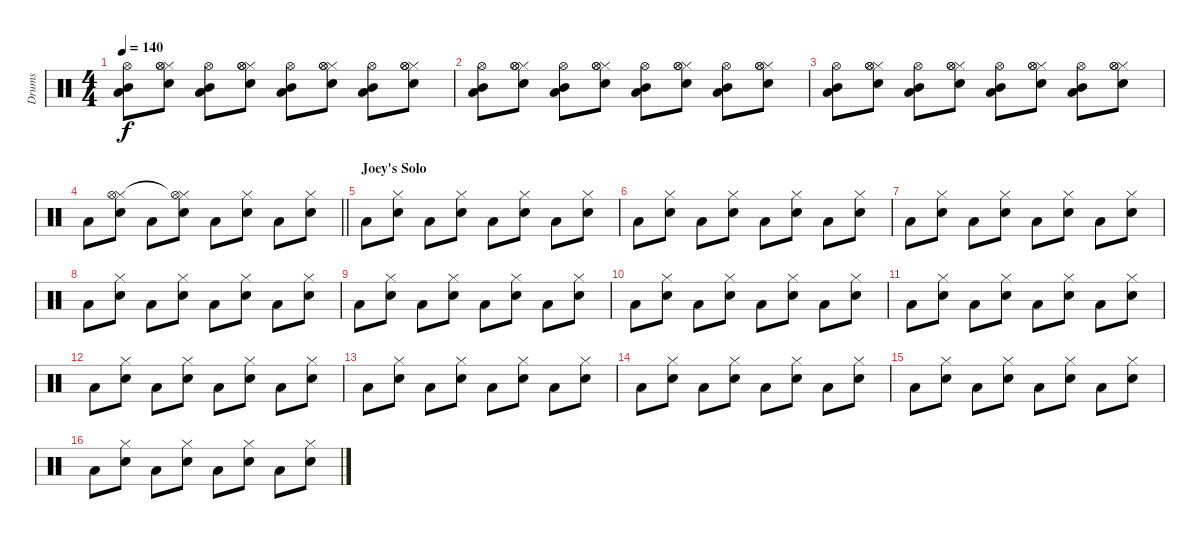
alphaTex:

\track ("Drums" "Drums") {instrument percussion}
\staff {score}
\articulation defaults
\ts (4 4)
\tempo 140
\clef neutral
\ks c
("Mid Tom (hit)" "Hi-Hat (open)" "Low Tom (hit)").8{dy f} ("Hi-Hat (closed)" "Hi-Hat (open)" "Hi-Hat (open)" "Electric Snare (hit)").8 ("Mid Tom (hit)" "Hi-Hat (open)" "Low Tom (hit)").8 ("Hi-Hat (closed)" "Hi-Hat (open)" "Hi-Hat (open)" "Electric Snare (hit)").8 ("Mid Tom (hit)" "Hi-Hat (open)" "Low Tom (hit)").8 ("Hi-Hat (closed)" "Hi-Hat (open)" "Hi-Hat (open)" "Electric Snare (hit)").8 ("Mid Tom (hit)" "Hi-Hat (open)" "Low Tom (hit)").8 ("Hi-Hat (closed)" "Hi-Hat (open)" "Hi-Hat (open)" "Electric Snare (hit)").8 |
("Mid Tom (hit)" "Hi-Hat (open)" "Low Tom (hit)").8 ("Hi-Hat (closed)" "Hi-Hat (open)" "Hi-Hat (open)" "Electric Snare (hit)").8 ("Mid Tom (hit)" "Hi-Hat (open)" "Low Tom (hit)").8 ("Hi-Hat (closed)" "Hi-Hat (open)" "Hi-Hat (open)" "Electric Snare (hit)").8 ("Mid Tom (hit)" "Hi-Hat (open)" "Low Tom (hit)").8 ("Hi-Hat (closed)" "Hi-Hat (open)" "Hi-Hat (open)" "Electric Snare (hit)").8 ("Mid Tom (hit)" "Hi-Hat (open)" "Low Tom (hit)").8 ("Hi-Hat (closed)" "Hi-Hat (open)" "Hi-Hat (open)" "Electric Snare (hit)").8 |
("Mid Tom (hit)" "Hi-Hat (open)" "Low Tom (hit)").8 ("Hi-Hat (closed)" "Hi-Hat (open)" "Hi-Hat (open)" "Electric Snare (hit)").8 ("Mid Tom (hit)" "Hi-Hat (open)" "Low Tom (hit)").8 ("Hi-Hat (closed)" "Hi-Hat (open)" "Hi-Hat (open)" "Electric Snare (hit)").8 ("Mid Tom (hit)" "Hi-Hat (open)" "Low Tom (hit)").8 ("Hi-Hat (closed)" "Hi-Hat (open)" "Hi-Hat (open)" "Electric Snare (hit)").8 ("Mid Tom (hit)" "Hi-Hat (open)" "Low Tom (hit)").8 ("Hi-Hat (closed)" "Hi-Hat (open)" "Hi-Hat (open)" "Electric Snare (hit)").8 |
\barLineRight lightlight "Low Tom (hit)".8
("Hi-Hat (closed)" "Hi-Hat (open)" "Electric Snare (hit)").8 "Low Tom (hit)".8 ("Hi-Hat (closed)" "Hi-Hat (open)"{t} "Electric Snare (hit)").8 "Low Tom (hit)".8 ("Hi-Hat (closed)" "Electric Snare (hit)").8 "Low Tom (hit)".8 ("Hi-Hat (closed)" "Electric Snare (hit)").8 |
\section ("" "Joey's Solo")
"Low Tom (hit)".8 ("Hi-Hat (closed)" "Electric Snare (hit)").8 "Low Tom (hit)".8 ("Hi-Hat (closed)" "Electric Snare (hit)").8 "Low Tom (hit)".8 ("Hi-Hat (closed)" "Electric Snare (hit)").8 "Low Tom (hit)".8 ("Hi-Hat (closed)" "Electric Snare (hit)").8 |
"Low Tom (hit)".8 ("Hi-Hat (closed)" "Electric Snare (hit)").8 "Low Tom (hit)".8 ("Hi-Hat (closed)" "Electric Snare (hit)").8 "Low Tom (hit)".8 ("Hi-Hat (closed)" "Electric Snare (hit)").8 "Low Tom (hit)".8 ("Hi-Hat (closed)" "Electric Snare (hit)").8 |
"Low Tom (hit)".8 ("Hi-Hat (closed)" "Electric Snare (hit)").8 "Low Tom (hit)".8 ("Hi-Hat (closed)" "Electric Snare (hit)").8 "Low Tom (hit)".8 ("Hi-Hat (closed)" "Electric Snare (hit)").8 "Low Tom (hit)".8 ("Hi-Hat (closed)" "Electric Snare (hit)").8 |
"Low Tom (hit)".8 ("Hi-Hat (closed)" "Electric Snare (hit)").8 "Low Tom (hit)".8 ("Hi-Hat (closed)" "Electric Snare (hit)").8 "Low Tom (hit)".8 ("Hi-Hat (closed)" "Electric Snare (hit)").8 "Low Tom (hit)".8 ("Hi-Hat (closed)" "Electric Snare (hit)").8 |
"Low Tom (hit)".8 ("Hi-Hat (closed)" "Electric Snare (hit)").8 "Low Tom (hit)".8 ("Hi-Hat (closed)" "Electric Snare (hit)").8 "Low Tom (hit)".8 ("Hi-Hat (closed)" "Electric Snare (hit)").8 "Low Tom (hit)".8 ("Hi-Hat (closed)" "Electric Snare (hit)").8 |
"Low Tom (hit)".8 ("Hi-Hat (closed)" "Electric Snare (hit)").8 "Low Tom (hit)".8 ("Hi-Hat (closed)" "Electric Snare (hit)").8 "Low Tom (hit)".8 ("Hi-Hat (closed)" "Electric Snare (hit)").8 "Low Tom (hit)".8 ("Hi-Hat (closed)" "Electric Snare (hit)").8 |
"Low Tom (hit)".8 ("Hi-Hat (closed)" "Electric Snare (hit)").8 "Low Tom (hit)".8 ("Hi-Hat (closed)" "Electric Snare (hit)").8 "Low Tom (hit)".8 ("Hi-Hat (closed)" "Electric Snare (hit)").8 "Low Tom (hit)".8 ("Hi-Hat (closed)" "Electric Snare (hit)").8 |
"Low Tom (hit)".8 ("Hi-Hat (closed)" "Electric Snare (hit)").8 "Low Tom (hit)".8 ("Hi-Hat (closed)" "Electric Snare (hit)").8 "Low Tom (hit)".8 ("Hi-Hat (closed)" "Electric Snare (hit)").8 "Low Tom (hit)".8 ("Hi-Hat (closed)" "Electric Snare (hit)").8 |
"Low Tom (hit)".8 ("Hi-Hat (closed)" "Electric Snare (hit)").8 "Low Tom (hit)".8 ("Hi-Hat (closed)" "Electric Snare (hit)").8 "Low Tom (hit)".8 ("Hi-Hat (closed)" "Electric Snare (hit)").8 "Low Tom (hit)".8 ("Hi-Hat (closed)" "Electric Snare (hit)").8 |
"Low Tom (hit)".8 ("Hi-Hat (closed)" "Electric Snare (hit)").8 "Low Tom (hit)".8 ("Hi-Hat (closed)" "Electric Snare (hit)").8 "Low Tom (hit)".8 ("Hi-Hat (closed)" "Electric Snare (hit)").8 "Low Tom (hit)".8 ("Hi-Hat (closed)" "Electric Snare (hit)").8 |
"Low Tom (hit)".8 ("Hi-Hat (closed)" "Electric Snare (hit)").8 "Low Tom (hit)".8 ("Hi-Hat (closed)" "Electric Snare (hit)").8 "Low Tom (hit)".8 ("Hi-Hat (closed)" "Electric Snare (hit)").8 "Low Tom (hit)".8 ("Hi-Hat (closed)" "Electric Snare (hit)").8 |
"Low Tom (hit)".8 ("Hi-Hat (closed)" "Electric Snare (hit)").8 "Low Tom (hit)".8 ("Hi-Hat (closed)" "Electric Snare (hit)").8 "Low Tom (hit)".8 ("Hi-Hat (closed)" "Electric Snare (hit)").8 "Low Tom (hit)".8 ("Hi-Hat (closed)" "Electric Snare (hit)").8
